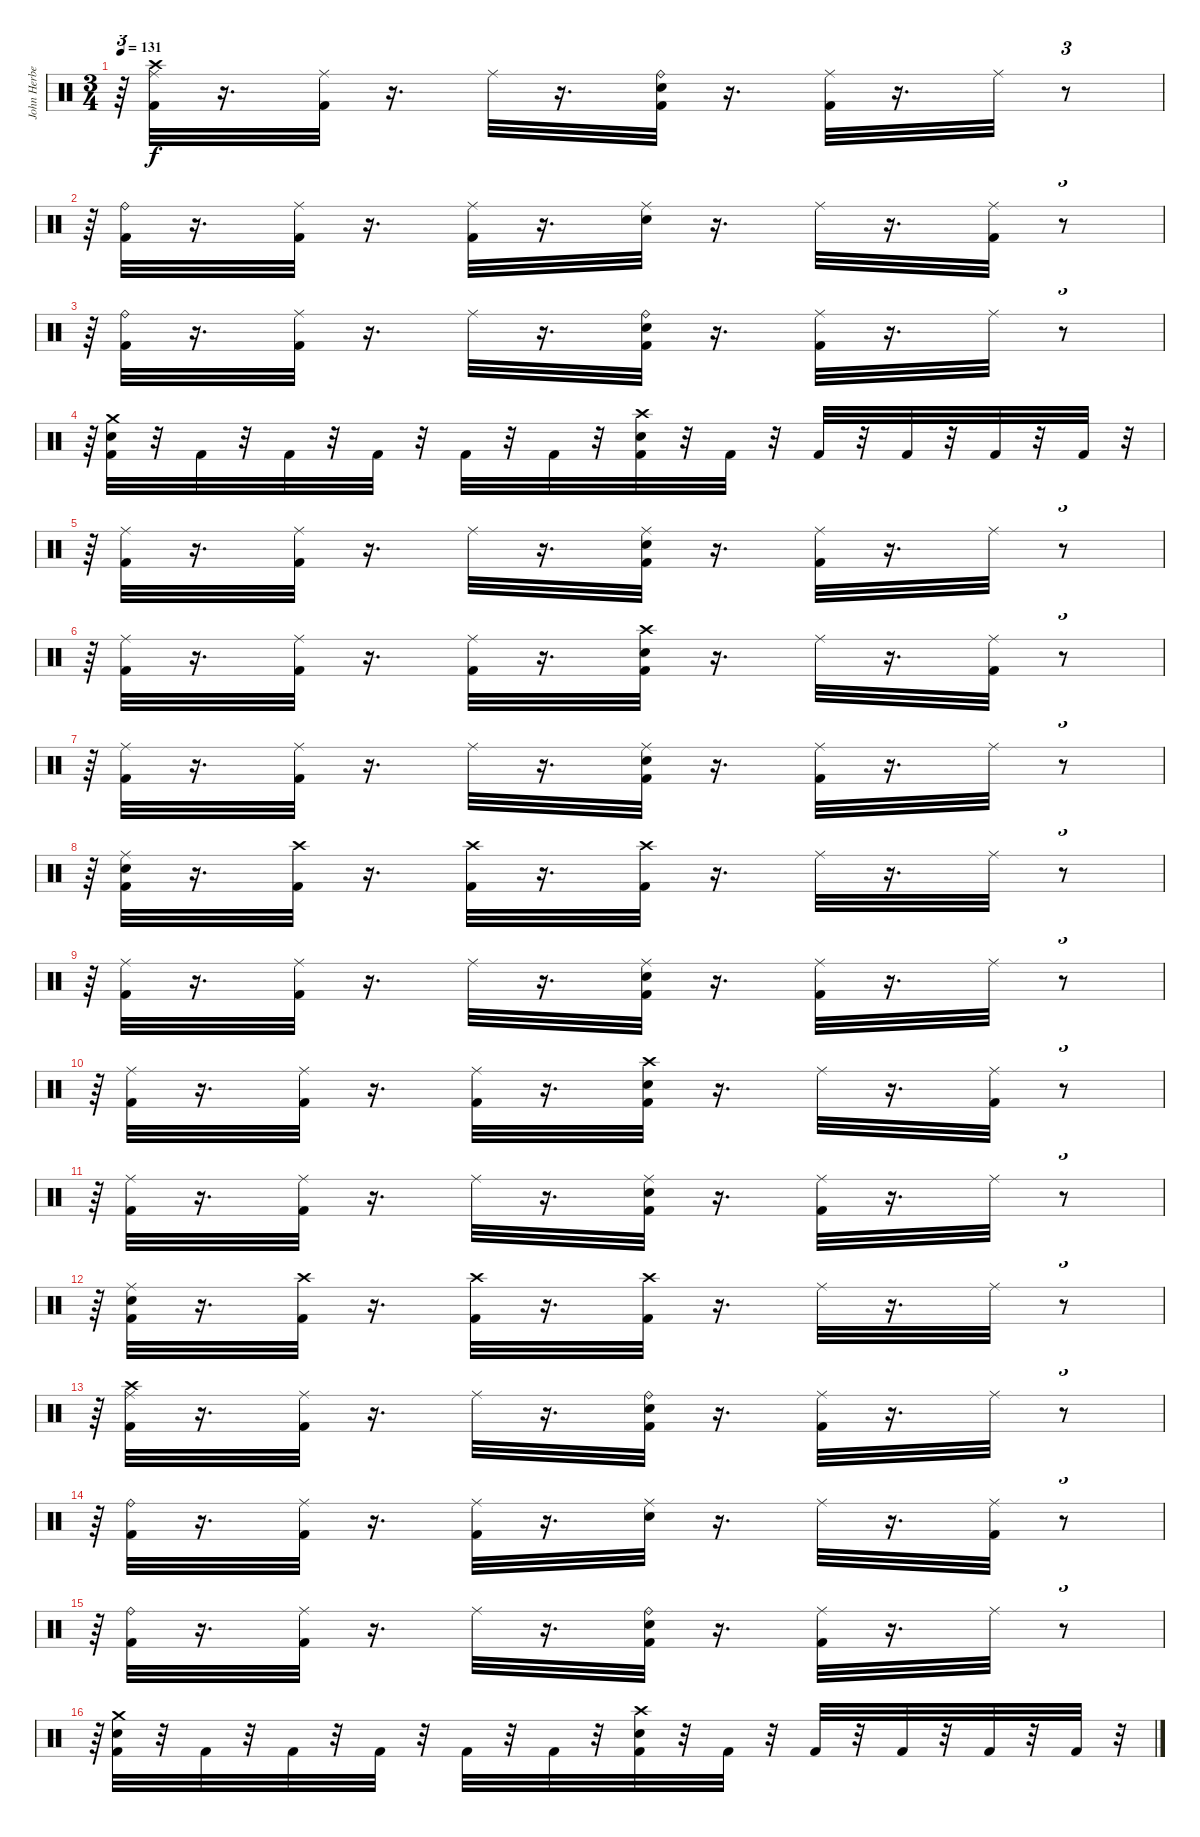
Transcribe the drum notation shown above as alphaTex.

\track ("John Herbert" "John Herbe") {instrument percussion}
\staff {score}
\articulation defaults
\ts (3 4)
\tempo 131
\clef neutral
\ks c
r.64{tu (3 2) dy f} ("Crash high (hit)" "Kick (hit) 2" "Ride (middle)").32 r.16{d} ("Kick (hit) 2" "Ride (middle)").32 r.16{d} "Ride (middle)".32 r.16{d} ("Kick (hit) 2" "Snare (hit) 2" "Ride (bell)").32 r.16{d} ("Kick (hit) 2" "Ride (middle)").32 r.16{d} "Ride (middle)".32 r.8{tu (3 2)} |
r.64{tu (3 2)} ("Kick (hit) 2" "Ride (bell)").32 r.16{d} ("Kick (hit) 2" "Ride (middle)").32 r.16{d} ("Kick (hit) 2" "Ride (middle)").32 r.16{d} ("Snare (hit) 2" "Ride (middle)").32 r.16{d} "Ride (middle)".32 r.16{d} ("Kick (hit) 2" "Ride (middle)").32 r.8{tu (3 2)} |
r.64{tu (3 2)} ("Kick (hit) 2" "Ride (bell)").32 r.16{d} ("Kick (hit) 2" "Ride (middle)").32 r.16{d} "Ride (middle)".32 r.16{d} ("Kick (hit) 2" "Snare (hit) 2" "Ride (bell)").32 r.16{d} ("Kick (hit) 2" "Ride (middle)").32 r.16{d} "Ride (middle)".32 r.8{tu (3 2)} |
r.64{tu (3 2)} ("Snare (hit) 2" "Kick (hit) 2" "Crash medium (hit)").32 r.32 "Kick (hit) 2".32 r.32 "Kick (hit) 2".32 r.32 "Kick (hit) 2".32 r.32 "Kick (hit) 2".32 r.32 "Kick (hit) 2".32 r.32 ("Crash high (hit)" "Snare (hit) 2" "Kick (hit) 2").32 r.32 "Kick (hit) 2".32 r.32 "Kick (hit) 2".32 r.32 "Kick (hit) 2".32 r.32 "Kick (hit) 2".32 r.32 "Kick (hit) 2".32 r.32{tu (3 2)} |
r.64{tu (3 2)} ("Ride (middle)" "Kick (hit) 2").32 r.16{d} ("Ride (middle)" "Kick (hit) 2").32 r.16{d} "Ride (middle)".32 r.16{d} ("Kick (hit) 2" "Ride (middle)" "Snare (hit) 2").32 r.16{d} ("Ride (middle)" "Kick (hit) 2").32 r.16{d} "Ride (middle)".32 r.8{tu (3 2)} |
r.64{tu (3 2)} ("Kick (hit) 2" "Ride (middle)").32 r.16{d} ("Kick (hit) 2" "Ride (middle)").32 r.16{d} ("Kick (hit) 2" "Ride (middle)").32 r.16{d} ("Kick (hit) 2" "Snare (hit) 2" "Crash high (hit)").32 r.16{d} "Ride (middle)".32 r.16{d} ("Kick (hit) 2" "Ride (middle)").32 r.8{tu (3 2)} |
r.64{tu (3 2)} ("Ride (middle)" "Kick (hit) 2").32 r.16{d} ("Ride (middle)" "Kick (hit) 2").32 r.16{d} "Ride (middle)".32 r.16{d} ("Kick (hit) 2" "Ride (middle)" "Snare (hit) 2").32 r.16{d} ("Ride (middle)" "Kick (hit) 2").32 r.16{d} "Ride (middle)".32 r.8{tu (3 2)} |
r.64{tu (3 2)} ("Snare (hit) 2" "Kick (hit) 2" "Ride (middle)").32 r.16{d} ("Kick (hit) 2" "Crash high (hit)").32 r.16{d} ("Kick (hit) 2" "Crash high (hit)").32 r.16{d} ("Kick (hit) 2" "Crash high (hit)").32 r.16{d} "Ride (middle)".32 r.16{d} "Ride (middle)".32 r.8{tu (3 2)} |
r.64{tu (3 2)} ("Ride (middle)" "Kick (hit) 2").32 r.16{d} ("Ride (middle)" "Kick (hit) 2").32 r.16{d} "Ride (middle)".32 r.16{d} ("Kick (hit) 2" "Ride (middle)" "Snare (hit) 2").32 r.16{d} ("Ride (middle)" "Kick (hit) 2").32 r.16{d} "Ride (middle)".32 r.8{tu (3 2)} |
r.64{tu (3 2)} ("Kick (hit) 2" "Ride (middle)").32 r.16{d} ("Kick (hit) 2" "Ride (middle)").32 r.16{d} ("Kick (hit) 2" "Ride (middle)").32 r.16{d} ("Kick (hit) 2" "Snare (hit) 2" "Crash high (hit)").32 r.16{d} "Ride (middle)".32 r.16{d} ("Kick (hit) 2" "Ride (middle)").32 r.8{tu (3 2)} |
r.64{tu (3 2)} ("Ride (middle)" "Kick (hit) 2").32 r.16{d} ("Ride (middle)" "Kick (hit) 2").32 r.16{d} "Ride (middle)".32 r.16{d} ("Kick (hit) 2" "Ride (middle)" "Snare (hit) 2").32 r.16{d} ("Ride (middle)" "Kick (hit) 2").32 r.16{d} "Ride (middle)".32 r.8{tu (3 2)} |
r.64{tu (3 2)} ("Snare (hit) 2" "Kick (hit) 2" "Ride (middle)").32 r.16{d} ("Kick (hit) 2" "Crash high (hit)").32 r.16{d} ("Kick (hit) 2" "Crash high (hit)").32 r.16{d} ("Kick (hit) 2" "Crash high (hit)").32 r.16{d} "Ride (middle)".32 r.16{d} "Ride (middle)".32 r.8{tu (3 2)} |
r.64{tu (3 2)} ("Crash high (hit)" "Kick (hit) 2" "Ride (middle)").32 r.16{d} ("Kick (hit) 2" "Ride (middle)").32 r.16{d} "Ride (middle)".32 r.16{d} ("Kick (hit) 2" "Snare (hit) 2" "Ride (bell)").32 r.16{d} ("Kick (hit) 2" "Ride (middle)").32 r.16{d} "Ride (middle)".32 r.8{tu (3 2)} |
r.64{tu (3 2)} ("Kick (hit) 2" "Ride (bell)").32 r.16{d} ("Kick (hit) 2" "Ride (middle)").32 r.16{d} ("Kick (hit) 2" "Ride (middle)").32 r.16{d} ("Snare (hit) 2" "Ride (middle)").32 r.16{d} "Ride (middle)".32 r.16{d} ("Kick (hit) 2" "Ride (middle)").32 r.8{tu (3 2)} |
r.64{tu (3 2)} ("Kick (hit) 2" "Ride (bell)").32 r.16{d} ("Kick (hit) 2" "Ride (middle)").32 r.16{d} "Ride (middle)".32 r.16{d} ("Kick (hit) 2" "Snare (hit) 2" "Ride (bell)").32 r.16{d} ("Kick (hit) 2" "Ride (middle)").32 r.16{d} "Ride (middle)".32 r.8{tu (3 2)} |
r.64{tu (3 2)} ("Snare (hit) 2" "Kick (hit) 2" "Crash medium (hit)").32 r.32 "Kick (hit) 2".32 r.32 "Kick (hit) 2".32 r.32 "Kick (hit) 2".32 r.32 "Kick (hit) 2".32 r.32 "Kick (hit) 2".32 r.32 ("Crash high (hit)" "Snare (hit) 2" "Kick (hit) 2").32 r.32 "Kick (hit) 2".32 r.32 "Kick (hit) 2".32 r.32 "Kick (hit) 2".32 r.32 "Kick (hit) 2".32 r.32 "Kick (hit) 2".32 r.32{tu (3 2)}
